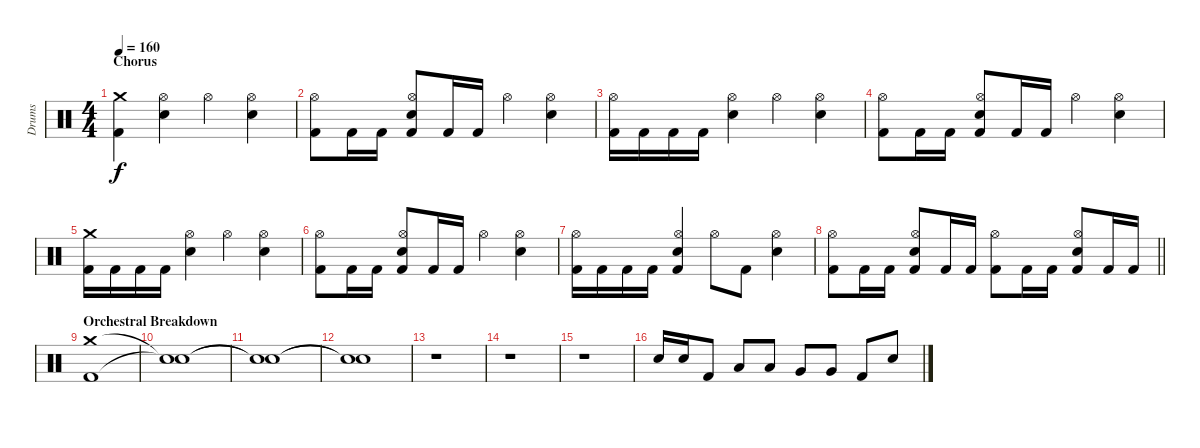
\track ("Drums" "Drums") {instrument percussion}
\staff {score}
\articulation defaults
\ts (4 4)
\section ("" "Chorus")
\tempo 160
\clef neutral
\ks aminor
("Crash medium (hit)" "Kick (hit) 2").4{dy f} ("Hi-Hat (open)" "Electric Snare (hit)").4 "Hi-Hat (open)".4 ("Hi-Hat (open)" "Electric Snare (hit)").4 |
("Hi-Hat (open)" "Kick (hit) 2").8 "Kick (hit) 2".16 "Kick (hit) 2".16 ("Hi-Hat (open)" "Electric Snare (hit)" "Kick (hit) 2").8 "Kick (hit) 2".16 "Kick (hit) 2".16 "Hi-Hat (open)".4 ("Hi-Hat (open)" "Electric Snare (hit)").4 |
("Hi-Hat (open)" "Kick (hit) 2").16 "Kick (hit) 2".16 "Kick (hit) 2".16 "Kick (hit) 2".16 ("Hi-Hat (open)" "Electric Snare (hit)").4 "Hi-Hat (open)".4 ("Hi-Hat (open)" "Electric Snare (hit)").4 |
("Hi-Hat (open)" "Kick (hit) 2").8 "Kick (hit) 2".16 "Kick (hit) 2".16 ("Hi-Hat (open)" "Electric Snare (hit)" "Kick (hit) 2").8 "Kick (hit) 2".16 "Kick (hit) 2".16 "Hi-Hat (open)".4 ("Hi-Hat (open)" "Electric Snare (hit)").4 |
("Crash medium (hit)" "Kick (hit) 2").16 "Kick (hit) 2".16 "Kick (hit) 2".16 "Kick (hit) 2".16 ("Hi-Hat (open)" "Electric Snare (hit)").4 "Hi-Hat (open)".4 ("Hi-Hat (open)" "Electric Snare (hit)").4 |
("Hi-Hat (open)" "Kick (hit) 2").8 "Kick (hit) 2".16 "Kick (hit) 2".16 ("Hi-Hat (open)" "Electric Snare (hit)" "Kick (hit) 2").8 "Kick (hit) 2".16 "Kick (hit) 2".16 "Hi-Hat (open)".4 ("Hi-Hat (open)" "Electric Snare (hit)").4 |
("Hi-Hat (open)" "Kick (hit) 2").16 "Kick (hit) 2".16 "Kick (hit) 2".16 "Kick (hit) 2".16 ("Hi-Hat (open)" "Electric Snare (hit)" "Kick (hit) 2").4 "Hi-Hat (open)".8 "Kick (hit) 2".8 ("Hi-Hat (open)" "Electric Snare (hit)").4 |
\barLineRight lightlight
("Hi-Hat (open)" "Kick (hit) 2").8 "Kick (hit) 2".16 "Kick (hit) 2".16 ("Hi-Hat (open)" "Electric Snare (hit)" "Kick (hit) 2").8 "Kick (hit) 2".16 "Kick (hit) 2".16 ("Hi-Hat (open)" "Kick (hit) 2").8 "Kick (hit) 2".16 "Kick (hit) 2".16 ("Hi-Hat (open)" "Electric Snare (hit)" "Kick (hit) 2").8 "Kick (hit) 2".16 "Kick (hit) 2".16 |
\section ("" "Orchestral Breakdown")
("Crash medium (hit)" "Kick (hit) 2").1 |
("Snare (hit)"{t} "Snare (hit)"{t}).1 |
("Snare (hit)"{t} "Snare (hit)"{t}).1 |
("Snare (hit)"{t} "Snare (hit)"{t}).1 |
r.1 |
r.1 |
r.1 |
"Snare (hit) 2".16 "Snare (hit) 2".16 "Kick (hit) 2".8 "Low Tom (hit)".8 "Low Tom (hit)".8 "Very Low Tom (hit)".8 "Very Low Tom (hit)".8 "Kick (hit) 2".8 "Electric Snare (hit)".8
